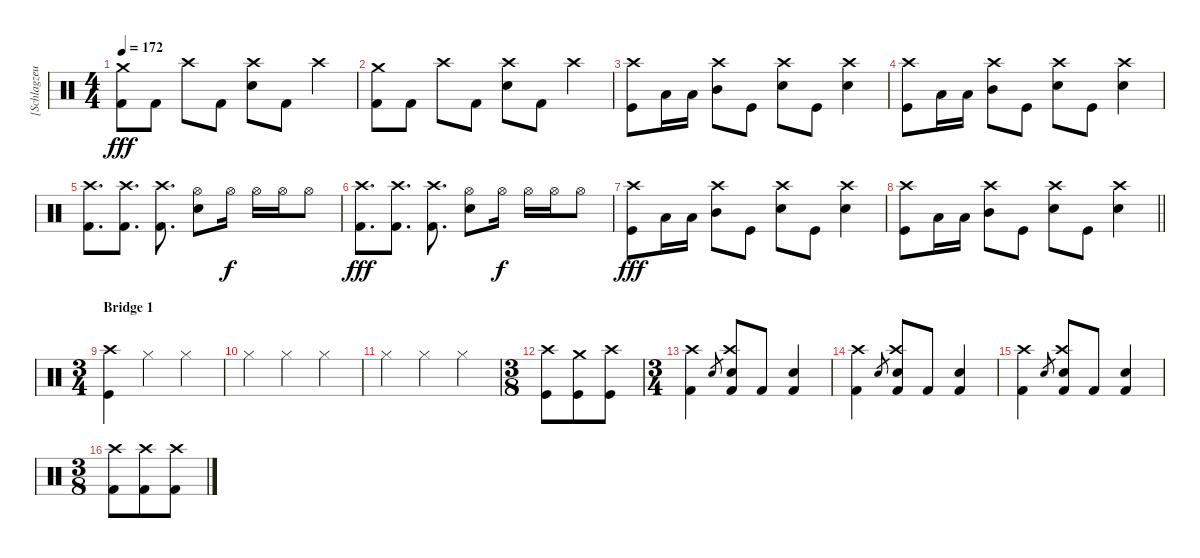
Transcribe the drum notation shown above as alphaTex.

\track ("[Schlagzeug]" "[Schlagzeu") {instrument percussion}
\staff {score}
\articulation defaults
\ts (4 4)
\tempo 172
\clef neutral
\ks c
("Crash medium (hit)" "Kick (hit) 2").8{dy fff} "Kick (hit) 2".8 "Crash high (hit)".8 "Kick (hit) 2".8 ("Crash high (hit)" "Electric Snare (hit)").8 "Kick (hit) 2".8 "Crash high (hit)".4 |
("Crash medium (hit)" "Kick (hit) 2").8 "Kick (hit) 2".8 "Crash high (hit)".8 "Kick (hit) 2".8 ("Crash high (hit)" "Electric Snare (hit)").8 "Kick (hit) 2".8 "Crash high (hit)".4 |
("Kick (hit)" "Crash high (hit)").8 "Low Floor Tom (hit)".16 "Low Floor Tom (hit)".16 ("Mid Tom (hit)" "Crash high (hit)").8 "Kick (hit)".8 ("Electric Snare (hit)" "Crash high (hit)").8 "Kick (hit)".8 ("Electric Snare (hit)" "Crash high (hit)").4 |
("Kick (hit)" "Crash high (hit)").8 "Low Floor Tom (hit)".16 "Low Floor Tom (hit)".16 ("Mid Tom (hit)" "Crash high (hit)").8 "Kick (hit)".8 ("Electric Snare (hit)" "Crash high (hit)").8 "Kick (hit)".8 ("Electric Snare (hit)" "Crash high (hit)").4 |
("Crash high (hit)" "Kick (hit) 2").8{d} ("Crash high (hit)" "Kick (hit) 2").8{d} ("Crash high (hit)" "Kick (hit) 2").8{d} ("Hi-Hat (open)" "Electric Snare (hit)").8 "Hi-Hat (open)".16{dy f} "Hi-Hat (open)".16 "Hi-Hat (open)".16 "Hi-Hat (open)".8 |
("Crash high (hit)" "Kick (hit) 2").8{d dy fff} ("Crash high (hit)" "Kick (hit) 2").8{d} ("Crash high (hit)" "Kick (hit) 2").8{d} ("Hi-Hat (open)" "Electric Snare (hit)").8 "Hi-Hat (open)".16{dy f} "Hi-Hat (open)".16 "Hi-Hat (open)".16 "Hi-Hat (open)".8 |
("Kick (hit)" "Crash high (hit)").8{dy fff} "Low Floor Tom (hit)".16 "Low Floor Tom (hit)".16 ("Mid Tom (hit)" "Crash high (hit)").8 "Kick (hit)".8 ("Electric Snare (hit)" "Crash high (hit)").8 "Kick (hit)".8 ("Electric Snare (hit)" "Crash high (hit)").4 |
\barLineRight lightlight
("Kick (hit)" "Crash high (hit)").8 "Low Floor Tom (hit)".16 "Low Floor Tom (hit)".16 ("Mid Tom (hit)" "Crash high (hit)").8 "Kick (hit)".8 ("Electric Snare (hit)" "Crash high (hit)").8 "Kick (hit)".8 ("Electric Snare (hit)" "Crash high (hit)").4 |
\ts (3 4)
\section ("" "Bridge 1")
("Crash high (hit)" "Kick (hit)").4 "Hi-Hat (closed)".4 "Hi-Hat (closed)".4 |
"Hi-Hat (closed)".4 "Hi-Hat (closed)".4 "Hi-Hat (closed)".4 |
"Hi-Hat (closed)".4 "Hi-Hat (closed)".4 "Hi-Hat (closed)".4 |
\ts (3 8)
("Crash high (hit)" "Kick (hit)").8 ("Crash medium (hit)" "Kick (hit)").8 ("Crash high (hit)" "Kick (hit)").8 |
\ts (3 4)
("Crash high (hit)" "Kick (hit) 2").4 "Electric Snare (hit)".8{gr} ("Crash high (hit)" "Electric Snare (hit)" "Kick (hit) 2").8 "Kick (hit) 2".8 ("Electric Snare (hit)" "Kick (hit) 2").4 |
("Crash high (hit)" "Kick (hit) 2").4 "Electric Snare (hit)".8{gr} ("Crash high (hit)" "Electric Snare (hit)" "Kick (hit) 2").8 "Kick (hit) 2".8 ("Electric Snare (hit)" "Kick (hit) 2").4 |
("Crash high (hit)" "Kick (hit) 2").4 "Electric Snare (hit)".8{gr} ("Crash high (hit)" "Electric Snare (hit)" "Kick (hit) 2").8 "Kick (hit) 2".8 ("Electric Snare (hit)" "Kick (hit) 2").4 |
\ts (3 8)
("Crash high (hit)" "Kick (hit) 2").8 ("Crash high (hit)" "Kick (hit) 2").8 ("Crash high (hit)" "Kick (hit) 2").8
